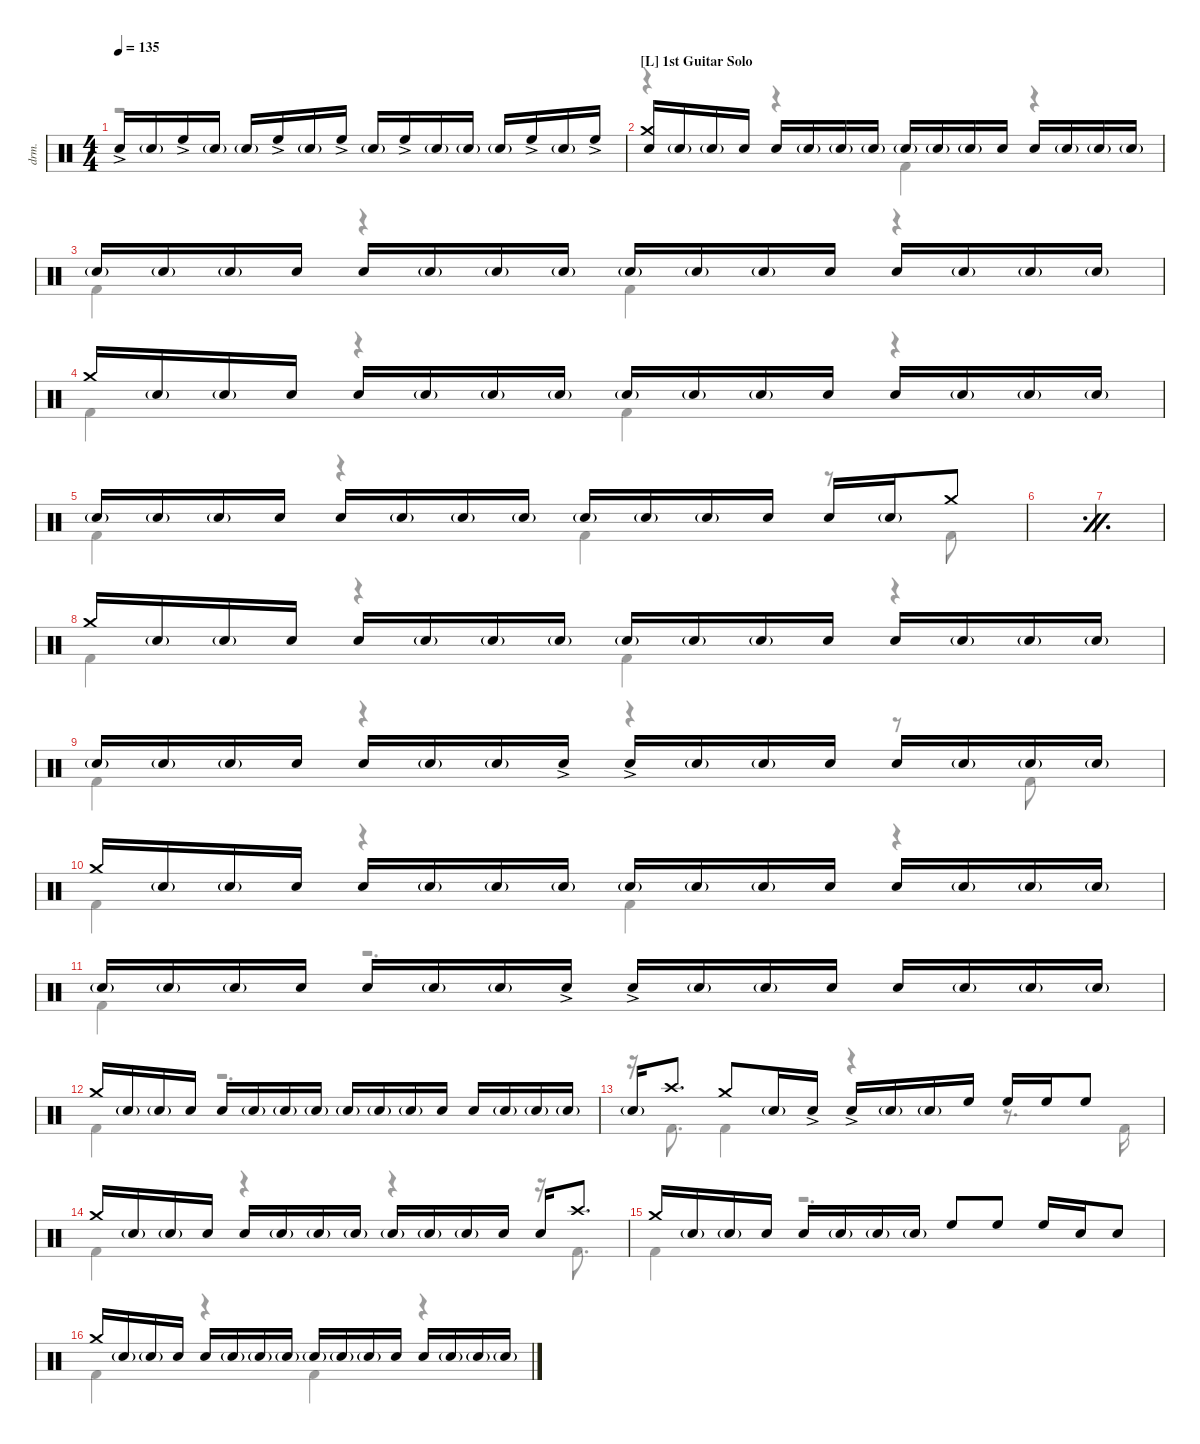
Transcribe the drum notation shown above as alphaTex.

\defaultSystemsLayout 4
\hideDynamics
\bracketExtendMode nobrackets
\track ("Drums" "drm.") {instrument percussion}
\staff {score}
\articulation defaults
\voice
\ts (4 4)
\tempo 135
\clef neutral
\ks c "Snare (hit) 2"{ac}.16{dy mf} "Snare (hit) 2"{g}.16 "High Floor Tom (hit)"{ac}.16 "Snare (hit) 2"{g}.16 "Snare (hit) 2"{g}.16 "High Floor Tom (hit)"{ac}.16 "Snare (hit) 2"{g}.16 "High Floor Tom (hit)"{ac}.16 "Snare (hit) 2"{g}.16 "High Floor Tom (hit)"{ac}.16 "Snare (hit) 2"{g}.16 "Snare (hit) 2"{g}.16 "Snare (hit) 2"{g}.16 "High Floor Tom (hit)"{ac}.16 "Snare (hit) 2"{g}.16 "High Floor Tom (hit)"{ac}.16
|
\section ("L" "1st Guitar Solo")
("Crash medium (hit)" "Snare (hit) 2").16 "Snare (hit) 2"{g}.16 "Snare (hit) 2"{g}.16 "Snare (hit) 2".16 "Snare (hit) 2".16 "Snare (hit) 2"{g}.16 "Snare (hit) 2"{g}.16 "Snare (hit) 2"{g}.16 "Snare (hit) 2"{g}.16 "Snare (hit) 2"{g}.16 "Snare (hit) 2"{g}.16 "Snare (hit) 2".16 "Snare (hit) 2".16 "Snare (hit) 2"{g}.16 "Snare (hit) 2"{g}.16 "Snare (hit) 2"{g}.16 |
"Snare (hit) 2"{g}.16 "Snare (hit) 2"{g}.16 "Snare (hit) 2"{g}.16 "Snare (hit) 2".16 "Snare (hit) 2".16 "Snare (hit) 2"{g}.16 "Snare (hit) 2"{g}.16 "Snare (hit) 2"{g}.16 "Snare (hit) 2"{g}.16 "Snare (hit) 2"{g}.16 "Snare (hit) 2"{g}.16 "Snare (hit) 2".16 "Snare (hit) 2".16 "Snare (hit) 2"{g}.16 "Snare (hit) 2"{g}.16 "Snare (hit) 2"{g}.16 |
"Crash medium (hit)".16 "Snare (hit) 2"{g}.16 "Snare (hit) 2"{g}.16 "Snare (hit) 2".16 "Snare (hit) 2".16 "Snare (hit) 2"{g}.16 "Snare (hit) 2"{g}.16 "Snare (hit) 2"{g}.16 "Snare (hit) 2"{g}.16 "Snare (hit) 2"{g}.16 "Snare (hit) 2"{g}.16 "Snare (hit) 2".16 "Snare (hit) 2".16 "Snare (hit) 2"{g}.16 "Snare (hit) 2"{g}.16 "Snare (hit) 2"{g}.16 |
"Snare (hit) 2"{g}.16 "Snare (hit) 2"{g}.16 "Snare (hit) 2"{g}.16 "Snare (hit) 2".16 "Snare (hit) 2".16 "Snare (hit) 2"{g}.16 "Snare (hit) 2"{g}.16 "Snare (hit) 2"{g}.16 "Snare (hit) 2"{g}.16 "Snare (hit) 2"{g}.16 "Snare (hit) 2"{g}.16 "Snare (hit) 2".16 "Snare (hit) 2".16 "Snare (hit) 2"{g}.16 "Crash medium (hit)".8 |
\simile firstofdouble
|
\simile secondofdouble
|
\simile none "Crash medium (hit)".16 "Snare (hit) 2"{g}.16 "Snare (hit) 2"{g}.16 "Snare (hit) 2".16 "Snare (hit) 2".16 "Snare (hit) 2"{g}.16 "Snare (hit) 2"{g}.16 "Snare (hit) 2"{g}.16 "Snare (hit) 2"{g}.16 "Snare (hit) 2"{g}.16 "Snare (hit) 2"{g}.16 "Snare (hit) 2".16 "Snare (hit) 2".16 "Snare (hit) 2"{g}.16 "Snare (hit) 2"{g}.16 "Snare (hit) 2"{g}.16
|
"Snare (hit) 2"{g}.16 "Snare (hit) 2"{g}.16 "Snare (hit) 2"{g}.16 "Snare (hit) 2".16 "Snare (hit) 2".16 "Snare (hit) 2"{g}.16 "Snare (hit) 2"{g}.16 "Snare (hit) 2"{ac}.16 "Snare (hit) 2"{ac}.16 "Snare (hit) 2"{g}.16 "Snare (hit) 2"{g}.16 "Snare (hit) 2".16 "Snare (hit) 2".16 "Snare (hit) 2"{g}.16 "Snare (hit) 2"{g}.16 "Snare (hit) 2"{g}.16 |
"Crash medium (hit)".16 "Snare (hit) 2"{g}.16 "Snare (hit) 2"{g}.16 "Snare (hit) 2".16 "Snare (hit) 2".16 "Snare (hit) 2"{g}.16 "Snare (hit) 2"{g}.16 "Snare (hit) 2"{g}.16 "Snare (hit) 2"{g}.16 "Snare (hit) 2"{g}.16 "Snare (hit) 2"{g}.16 "Snare (hit) 2".16 "Snare (hit) 2".16 "Snare (hit) 2"{g}.16 "Snare (hit) 2"{g}.16 "Snare (hit) 2"{g}.16 |
"Snare (hit) 2"{g}.16 "Snare (hit) 2"{g}.16 "Snare (hit) 2"{g}.16 "Snare (hit) 2".16 "Snare (hit) 2".16 "Snare (hit) 2"{g}.16 "Snare (hit) 2"{g}.16 "Snare (hit) 2"{ac}.16 "Snare (hit) 2"{ac}.16 "Snare (hit) 2"{g}.16 "Snare (hit) 2"{g}.16 "Snare (hit) 2".16 "Snare (hit) 2".16 "Snare (hit) 2"{g}.16 "Snare (hit) 2"{g}.16 "Snare (hit) 2"{g}.16 |
"Crash medium (hit)".16 "Snare (hit) 2"{g}.16 "Snare (hit) 2"{g}.16 "Snare (hit) 2".16 "Snare (hit) 2".16 "Snare (hit) 2"{g}.16 "Snare (hit) 2"{g}.16 "Snare (hit) 2"{g}.16 "Snare (hit) 2"{g}.16 "Snare (hit) 2"{g}.16 "Snare (hit) 2"{g}.16 "Snare (hit) 2".16 "Snare (hit) 2".16 "Snare (hit) 2"{g}.16 "Snare (hit) 2"{g}.16 "Snare (hit) 2"{g}.16 |
"Snare (hit) 2"{g}.16 "Crash high (hit)".8{d} "Crash medium (hit)".8 "Snare (hit) 2"{g}.16 "Snare (hit) 2"{ac}.16 "Snare (hit) 2"{ac}.16 "Snare (hit) 2"{g}.16 "Snare (hit) 2"{g}.16 "High Floor Tom (hit)".16 "High Floor Tom (hit)".16 "High Floor Tom (hit)".16 "High Floor Tom (hit)".8 |
"Crash medium (hit)".16 "Snare (hit) 2"{g}.16 "Snare (hit) 2"{g}.16 "Snare (hit) 2".16 "Snare (hit) 2".16 "Snare (hit) 2"{g}.16 "Snare (hit) 2"{g}.16 "Snare (hit) 2"{g}.16 "Snare (hit) 2"{g}.16 "Snare (hit) 2"{g}.16 "Snare (hit) 2"{g}.16 "Snare (hit) 2".16 "Snare (hit) 2".16 "Crash high (hit)".8{d} |
"Crash medium (hit)".16 "Snare (hit) 2"{g}.16 "Snare (hit) 2"{g}.16 "Snare (hit) 2".16 "Snare (hit) 2".16 "Snare (hit) 2"{g}.16 "Snare (hit) 2"{g}.16 "Snare (hit) 2"{g}.16 "High Floor Tom (hit)".8 "High Floor Tom (hit)".8 "High Floor Tom (hit)".16 "Snare (hit) 2".16 "Snare (hit) 2".8 |
"Crash medium (hit)".16 "Snare (hit) 2"{g}.16 "Snare (hit) 2"{g}.16 "Snare (hit) 2".16 "Snare (hit) 2".16 "Snare (hit) 2"{g}.16 "Snare (hit) 2"{g}.16 "Snare (hit) 2"{g}.16 "Snare (hit) 2"{g}.16 "Snare (hit) 2"{g}.16 "Snare (hit) 2"{g}.16 "Snare (hit) 2".16 "Snare (hit) 2".16 "Snare (hit) 2"{g}.16 "Snare (hit) 2"{g}.16 "Snare (hit) 2"{g}.16
\voice
\clef neutral
\ottava regular
\simile none
\ks c
r.1{dy mf} |
r.4 r.4 "Kick (hit) 2".4 r.4 |
"Kick (hit) 2".4 r.4 "Kick (hit) 2".4 r.4 |
"Kick (hit) 2".4 r.4 "Kick (hit) 2".4 r.4 |
"Kick (hit) 2".4 r.4 "Kick (hit) 2".4 r.8 "Kick (hit) 2".8 |
\simile firstofdouble
|
\simile secondofdouble
|
\simile none "Kick (hit) 2".4
r.4 "Kick (hit) 2".4 r.4 |
"Kick (hit) 2".4 r.4 r.4 r.8 "Kick (hit) 2".8 |
"Kick (hit) 2".4 r.4 "Kick (hit) 2".4 r.4 |
"Kick (hit) 2".4 r.2{d} |
"Kick (hit) 2".4 r.2{d} |
r.16 "Kick (hit) 2".8{d} "Kick (hit) 2".4 r.4 r.8{d} "Kick (hit) 2".16 |
"Kick (hit) 2".4 r.4 r.4 r.16 "Kick (hit) 2".8{d} |
"Kick (hit) 2".4 r.2{d} |
"Kick (hit) 2".4 r.4 "Kick (hit) 2".4 r.4
